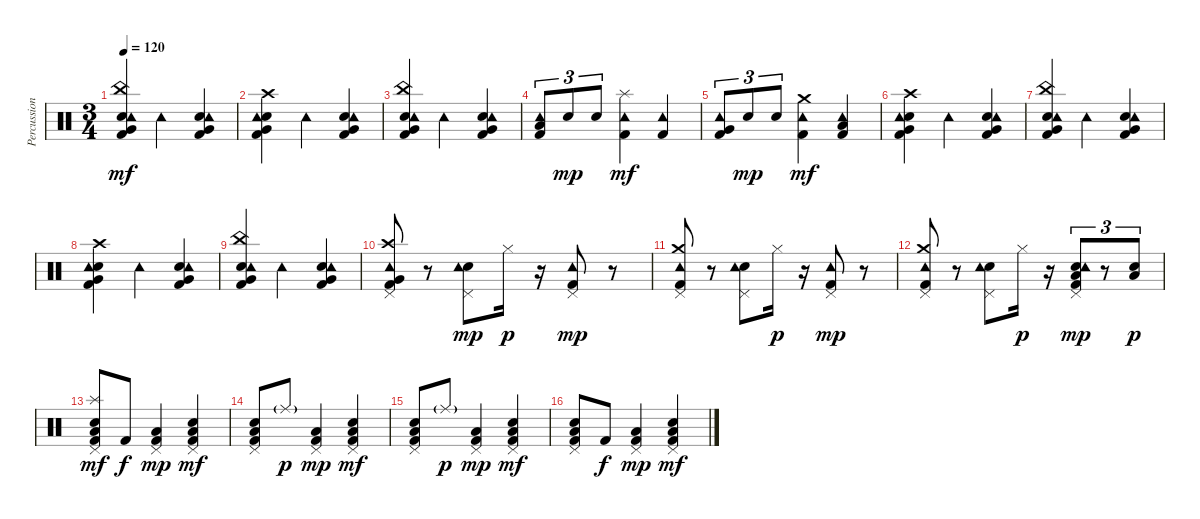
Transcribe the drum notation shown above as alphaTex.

\track ("Percussion" "Percussion") {instrument percussion}
\staff {score}
\articulation defaults
\ts (3 4)
\tempo 120
\clef neutral
\ks c
("Snare (hit) 2" "Kick (hit) 2" "China (hit)" "Tambourine (hit)" "Very Low Tom (hit)").4{dy mf} "Tambourine (hit)".4 ("Snare (hit) 2" "Kick (hit) 2" "Tambourine (hit)" "Very Low Tom (hit)").4 |
("Snare (hit) 2" "Kick (hit) 2" "Crash high (hit)" "Tambourine (hit)" "Very Low Tom (hit)").4 "Tambourine (hit)".4 ("Snare (hit) 2" "Kick (hit) 2" "Tambourine (hit)" "Very Low Tom (hit)").4 |
("Snare (hit) 2" "Kick (hit) 2" "China (hit)" "Tambourine (hit)" "Very Low Tom (hit)").4 "Tambourine (hit)".4 ("Snare (hit) 2" "Kick (hit) 2" "Tambourine (hit)" "Very Low Tom (hit)").4 |
("Kick (hit) 2" "Tambourine (hit)" "Low Floor Tom (hit)").8{tu (3 2)} "Snare (hit) 2".8{tu (3 2) dy mp} "Snare (hit) 2".8{tu (3 2)} ("Kick (hit) 2" "Splash (hit)" "Tambourine (hit)").4{dy mf} ("Kick (hit) 2" "Tambourine (hit)").4 |
("Kick (hit) 2" "Tambourine (hit)" "Very Low Tom (hit)").8{tu (3 2)} "Snare (hit) 2".8{tu (3 2) dy mp} "Snare (hit) 2".8{tu (3 2)} ("Kick (hit) 2" "Crash medium (hit)" "Tambourine (hit)").4{dy mf} ("Kick (hit) 2" "Tambourine (hit)" "Low Tom (hit)").4 |
("Snare (hit) 2" "Kick (hit) 2" "Crash high (hit)" "Tambourine (hit)" "Very Low Tom (hit)").4 "Tambourine (hit)".4 ("Snare (hit) 2" "Kick (hit) 2" "Tambourine (hit)" "Very Low Tom (hit)").4 |
("Snare (hit) 2" "Kick (hit) 2" "China (hit)" "Tambourine (hit)" "Very Low Tom (hit)").4 "Tambourine (hit)".4 ("Snare (hit) 2" "Kick (hit) 2" "Tambourine (hit)" "Very Low Tom (hit)").4 |
("Snare (hit) 2" "Kick (hit) 2" "Crash high (hit)" "Tambourine (hit)" "Very Low Tom (hit)").4 "Tambourine (hit)".4 ("Snare (hit) 2" "Kick (hit) 2" "Tambourine (hit)" "Very Low Tom (hit)").4 |
("Snare (hit) 2" "Kick (hit) 2" "China (hit)" "Tambourine (hit)" "Very Low Tom (hit)").4 "Tambourine (hit)".4 ("Snare (hit) 2" "Kick (hit) 2" "Tambourine (hit)" "Very Low Tom (hit)").4 |
("Kick (hit) 2" "Pedal Hi-Hat (hit)" "Crash high (hit)" "Tambourine (hit)" "Very Low Tom (hit)").8 r.8 ("Snare (hit) 2" "Pedal Hi-Hat (hit)" "Tambourine (hit)").8{dy mp} "Hi-Hat (closed)".16{dy p} r.16 ("Kick (hit) 2" "Pedal Hi-Hat (hit)" "Tambourine (hit)").8{dy mp} r.8 |
("Kick (hit) 2" "Pedal Hi-Hat (hit)" "Crash medium (hit)" "Tambourine (hit)").8 r.8 ("Snare (hit) 2" "Pedal Hi-Hat (hit)" "Tambourine (hit)").8 "Hi-Hat (closed)".16{dy p} r.16 ("Kick (hit) 2" "Pedal Hi-Hat (hit)" "Tambourine (hit)").8{dy mp} r.8 |
("Kick (hit) 2" "Pedal Hi-Hat (hit)" "Crash medium (hit)" "Tambourine (hit)").8 r.8 ("Snare (hit) 2" "Pedal Hi-Hat (hit)" "Tambourine (hit)").8 "Hi-Hat (closed)".16{dy p} r.16 ("Snare (hit) 2" "Kick (hit) 2" "Pedal Hi-Hat (hit)" "Tambourine (hit)" "Low Tom (hit)").8{tu (3 2) dy mp} r.8{tu (3 2)} ("Snare (hit) 2" "Low Tom (hit)").8{tu (3 2) dy p} |
("Snare (hit) 2" "Kick (hit) 2" "Splash (hit)" "Pedal Hi-Hat (hit)" "Low Tom (hit)").8{dy mf} "Kick (hit) 2".8{dy f} ("Kick (hit) 2" "Pedal Hi-Hat (hit)" "Low Floor Tom (hit)").4{dy mp} ("Snare (hit) 2" "Kick (hit) 2" "Pedal Hi-Hat (hit)" "Low Tom (hit)").4{dy mf} |
("Snare (hit) 2" "Kick (hit) 2" "Pedal Hi-Hat (hit)" "Low Tom (hit)").8 "Ride (middle)"{g}.8{dy p} ("Kick (hit) 2" "Pedal Hi-Hat (hit)" "Low Floor Tom (hit)").4{dy mp} ("Snare (hit) 2" "Kick (hit) 2" "Pedal Hi-Hat (hit)" "Low Tom (hit)").4{dy mf} |
("Snare (hit) 2" "Kick (hit) 2" "Pedal Hi-Hat (hit)" "Low Tom (hit)").8 "Ride (middle)"{g}.8{dy p} ("Kick (hit) 2" "Pedal Hi-Hat (hit)" "Low Floor Tom (hit)").4{dy mp} ("Snare (hit) 2" "Kick (hit) 2" "Pedal Hi-Hat (hit)" "Low Tom (hit)").4{dy mf} |
("Snare (hit) 2" "Kick (hit) 2" "Pedal Hi-Hat (hit)" "Low Tom (hit)").8 "Kick (hit) 2".8{dy f} ("Kick (hit) 2" "Pedal Hi-Hat (hit)" "Low Floor Tom (hit)").4{dy mp} ("Snare (hit) 2" "Kick (hit) 2" "Pedal Hi-Hat (hit)" "Low Tom (hit)").4{dy mf}
